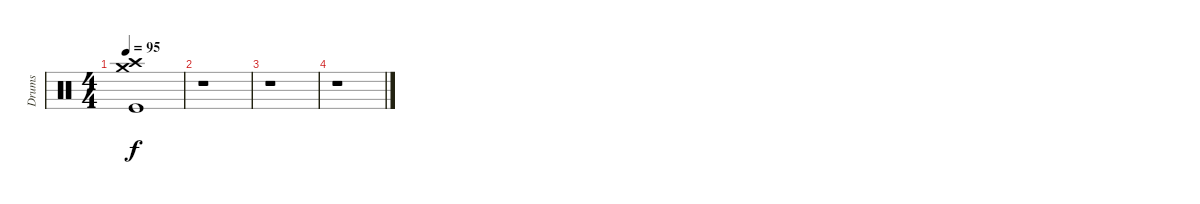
\track ("Drums" "Drums") {instrument percussion}
\staff {score}
\articulation defaults
\ts (4 4)
\tempo 95
\clef neutral
\ks c
("Crash medium (hit)" "Crash high (hit)" "Kick (hit)").1{dy f} |
r.1 |
r.1 |
r.1
